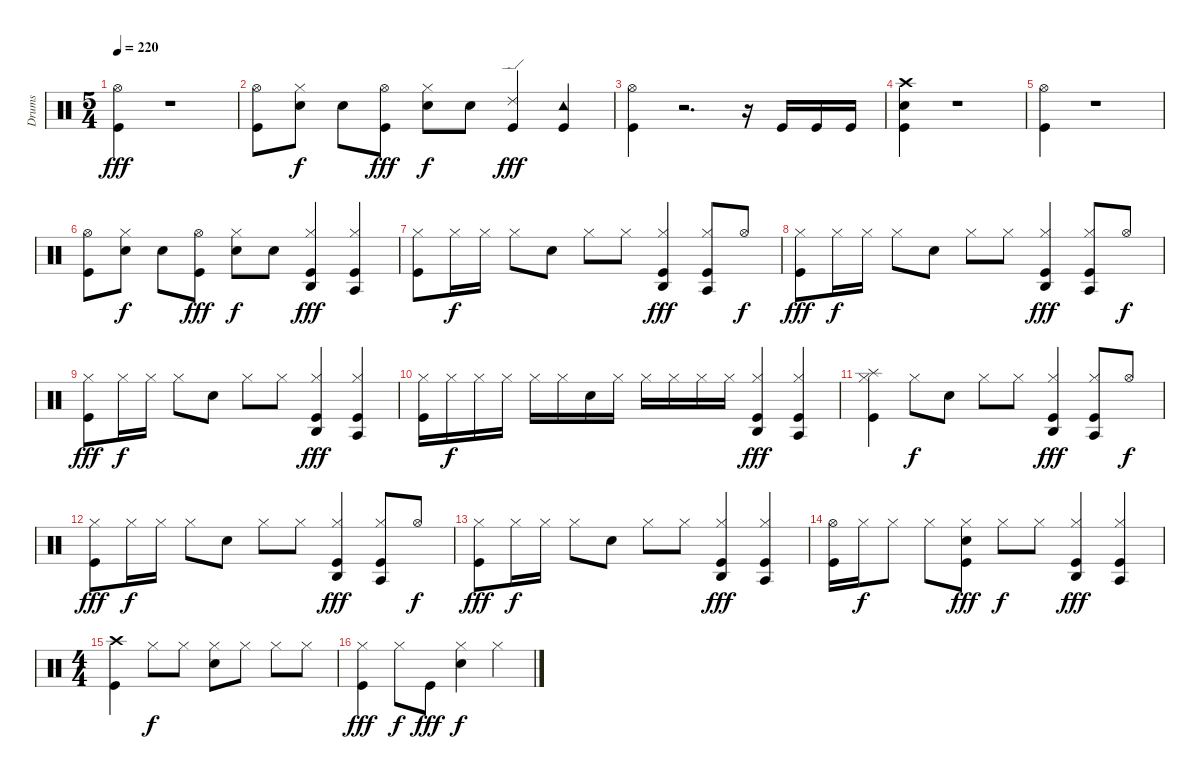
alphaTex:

\track ("Drums" "Drums") {instrument percussion}
\staff {score}
\articulation defaults
\ts (5 4)
\tempo 220
\clef neutral
\ks c
("Hi-Hat (open)" "Kick (hit)").4{dy fff volume 15} r.1{volume 0} |
("Hi-Hat (open)" "Kick (hit)").8{volume 15} ("Hi-Hat (closed)" "Electric Snare (hit)").8{dy f} "Electric Snare (hit)".8 ("Hi-Hat (open)" "Kick (hit)").8{dy fff} ("Hi-Hat (closed)" "Electric Snare (hit)").8{dy f} "Electric Snare (hit)".8 ("Ride (edge) 2" "Kick (hit)").4{dy fff} ("Tambourine (hit)" "Kick (hit)").4 |
("Hi-Hat (open)" "Kick (hit)").4{volume 15} r.2{d volume 0} r.16 "Kick (hit)".16{volume 15} "Kick (hit)".16 "Kick (hit)".16 |
("Crash high (hit)" "Electric Snare (hit)" "Kick (hit)").4 r.1 |
("Hi-Hat (open)" "Kick (hit)").4{volume 15} r.1{volume 0} |
("Hi-Hat (open)" "Kick (hit)").8{volume 15} ("Hi-Hat (closed)" "Electric Snare (hit)").8{dy f} "Electric Snare (hit)".8 ("Hi-Hat (open)" "Kick (hit)").8{dy fff} ("Hi-Hat (closed)" "Electric Snare (hit)").8{dy f} "Electric Snare (hit)".8 ("Agogo high (hit)" "Hi-Hat (closed)" "Kick (hit)").4{dy fff} ("Agogo tow (hit)" "Hi-Hat (closed)" "Kick (hit)").4 |
("Hi-Hat (closed)" "Kick (hit)").8 "Hi-Hat (closed)".16{dy f} "Hi-Hat (closed)".16 "Hi-Hat (closed)".8 "Electric Snare (hit)".8 "Hi-Hat (closed)".8 "Hi-Hat (closed)".8 ("Agogo high (hit)" "Hi-Hat (closed)" "Kick (hit)").4{dy fff} ("Agogo tow (hit)" "Hi-Hat (closed)" "Kick (hit)").8 "Hi-Hat (open)".8{dy f} |
("Hi-Hat (closed)" "Kick (hit)").8{dy fff} "Hi-Hat (closed)".16{dy f} "Hi-Hat (closed)".16 "Hi-Hat (closed)".8 "Electric Snare (hit)".8 "Hi-Hat (closed)".8 "Hi-Hat (closed)".8 ("Agogo high (hit)" "Hi-Hat (closed)" "Kick (hit)").4{dy fff} ("Agogo tow (hit)" "Hi-Hat (closed)" "Kick (hit)").8 "Hi-Hat (open)".8{dy f} |
("Hi-Hat (closed)" "Kick (hit)").8{dy fff} "Hi-Hat (closed)".16{dy f} "Hi-Hat (closed)".16 "Hi-Hat (closed)".8 "Electric Snare (hit)".8 "Hi-Hat (closed)".8 "Hi-Hat (closed)".8 ("Agogo high (hit)" "Hi-Hat (closed)" "Kick (hit)").4{dy fff} ("Agogo tow (hit)" "Hi-Hat (closed)" "Kick (hit)").4 |
("Hi-Hat (closed)" "Kick (hit)").16 "Hi-Hat (closed)".16{dy f} "Hi-Hat (closed)".16 "Hi-Hat (closed)".16 "Hi-Hat (closed)".16 "Hi-Hat (closed)".16 "Electric Snare (hit)".16 "Hi-Hat (closed)".16 "Hi-Hat (closed)".16 "Hi-Hat (closed)".16 "Hi-Hat (closed)".16 "Hi-Hat (closed)".16 ("Agogo high (hit)" "Hi-Hat (closed)" "Kick (hit)").4{dy fff} ("Agogo tow (hit)" "Hi-Hat (closed)" "Kick (hit)").4 |
("Splash (hit)" "Hi-Hat (closed)" "Kick (hit)").4 "Hi-Hat (closed)".8{dy f} "Electric Snare (hit)".8 "Hi-Hat (closed)".8 "Hi-Hat (closed)".8 ("Agogo high (hit)" "Hi-Hat (closed)" "Kick (hit)").4{dy fff} ("Agogo tow (hit)" "Hi-Hat (closed)" "Kick (hit)").8 "Hi-Hat (open)".8{dy f} |
("Hi-Hat (closed)" "Kick (hit)").8{dy fff} "Hi-Hat (closed)".16{dy f} "Hi-Hat (closed)".16 "Hi-Hat (closed)".8 "Electric Snare (hit)".8 "Hi-Hat (closed)".8 "Hi-Hat (closed)".8 ("Agogo high (hit)" "Hi-Hat (closed)" "Kick (hit)").4{dy fff} ("Agogo tow (hit)" "Hi-Hat (closed)" "Kick (hit)").8 "Hi-Hat (open)".8{dy f} |
("Hi-Hat (closed)" "Kick (hit)").8{dy fff} "Hi-Hat (closed)".16{dy f} "Hi-Hat (closed)".16 "Hi-Hat (closed)".8 "Electric Snare (hit)".8 "Hi-Hat (closed)".8 "Hi-Hat (closed)".8 ("Agogo high (hit)" "Hi-Hat (closed)" "Kick (hit)").4{dy fff} ("Agogo tow (hit)" "Hi-Hat (closed)" "Kick (hit)").4 |
("Hi-Hat (open)" "Kick (hit)").16 "Hi-Hat (closed)".16{dy f} "Hi-Hat (closed)".8 "Hi-Hat (closed)".8 ("Hi-Hat (closed)" "Electric Snare (hit)" "Kick (hit)").8{dy fff} "Hi-Hat (closed)".8{dy f} "Hi-Hat (closed)".8 ("Agogo high (hit)" "Hi-Hat (closed)" "Kick (hit)").4{dy fff} ("Agogo tow (hit)" "Hi-Hat (closed)" "Kick (hit)").4 |
\ts (4 4)
("Crash high (hit)" "Kick (hit)").4 "Hi-Hat (closed)".8{dy f} "Hi-Hat (closed)".8 ("Hi-Hat (closed)" "Electric Snare (hit)").8 "Hi-Hat (closed)".8 "Hi-Hat (closed)".8 "Hi-Hat (closed)".8 |
("Hi-Hat (closed)" "Kick (hit)").4{dy fff} "Hi-Hat (closed)".8{dy f} "Kick (hit)".8{dy fff} ("Hi-Hat (closed)" "Electric Snare (hit)").4{dy f} "Hi-Hat (closed)".4
